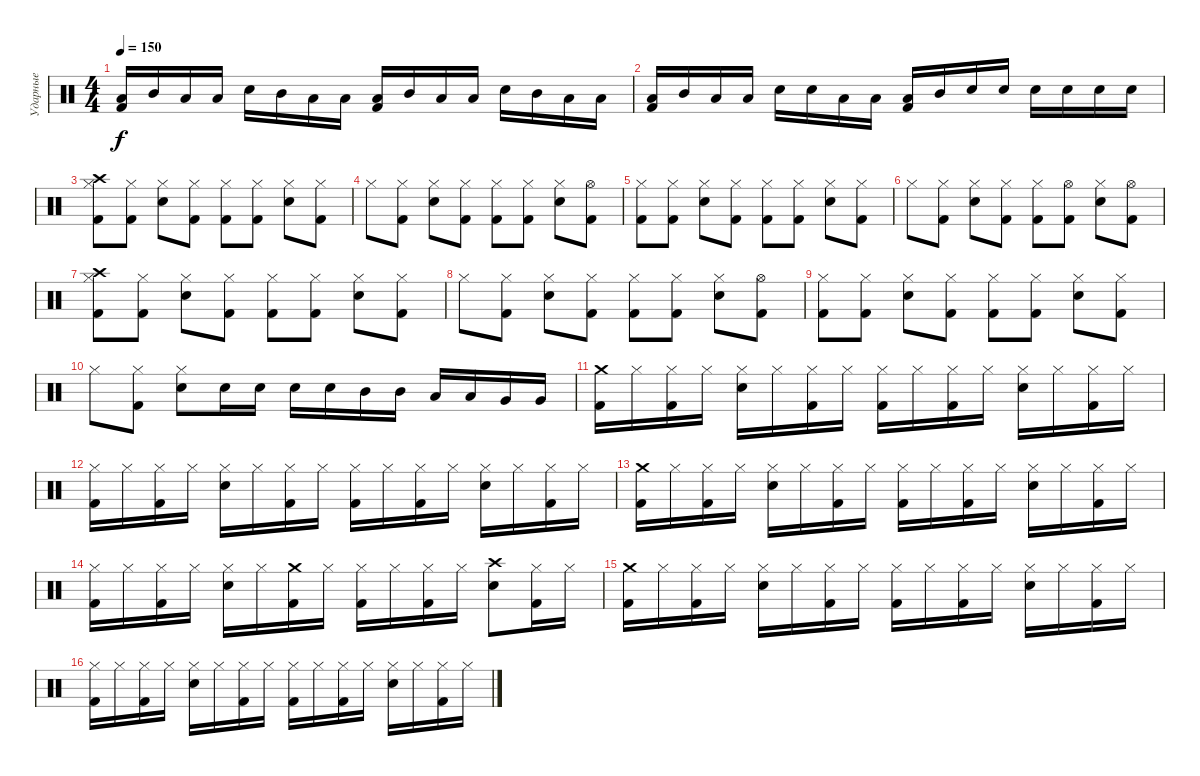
\track ("Ударные" "Ударные") {instrument percussion}
\staff {score}
\articulation defaults
\ts (4 4)
\tempo 150
\clef neutral
\ks c
("Low Tom (hit)" "Kick (hit) 2").16{dy f} "Mid Tom (hit)".16 "Low Tom (hit)".16 "Low Tom (hit)".16 "Electric Snare (hit)".16 "Mid Tom (hit)".16 "Low Tom (hit)".16 "Low Tom (hit)".16 ("Low Tom (hit)" "Kick (hit) 2").16 "Mid Tom (hit)".16 "Low Tom (hit)".16 "Low Tom (hit)".16 "Electric Snare (hit)".16 "Mid Tom (hit)".16 "Low Tom (hit)".16 "Low Tom (hit)".16 |
("Low Tom (hit)" "Kick (hit) 2").16 "Mid Tom (hit)".16 "Low Tom (hit)".16 "Low Tom (hit)".16 "Electric Snare (hit)".16 "Electric Snare (hit)".16 "Low Tom (hit)".16 "Low Tom (hit)".16 ("Low Tom (hit)" "Kick (hit) 2").16 "Mid Tom (hit)".16 "Electric Snare (hit)".16 "Electric Snare (hit)".16 "Electric Snare (hit)".16 "Electric Snare (hit)".16 "Electric Snare (hit)".16 "Electric Snare (hit)".16 |
("Crash high (hit)" "Hi-Hat (closed)" "Kick (hit) 2").8 ("Hi-Hat (closed)" "Kick (hit) 2").8 ("Hi-Hat (closed)" "Electric Snare (hit)").8 ("Hi-Hat (closed)" "Kick (hit) 2").8 ("Hi-Hat (closed)" "Kick (hit) 2").8 ("Hi-Hat (closed)" "Kick (hit) 2").8 ("Hi-Hat (closed)" "Electric Snare (hit)").8 ("Hi-Hat (closed)" "Kick (hit) 2").8 |
"Hi-Hat (closed)".8 ("Hi-Hat (closed)" "Kick (hit) 2").8 ("Hi-Hat (closed)" "Electric Snare (hit)").8 ("Hi-Hat (closed)" "Kick (hit) 2").8 ("Hi-Hat (closed)" "Kick (hit) 2").8 ("Hi-Hat (closed)" "Kick (hit) 2").8 ("Hi-Hat (closed)" "Electric Snare (hit)").8 ("Hi-Hat (open)" "Kick (hit) 2").8 |
("Hi-Hat (closed)" "Kick (hit) 2").8 ("Hi-Hat (closed)" "Kick (hit) 2").8 ("Hi-Hat (closed)" "Electric Snare (hit)").8 ("Hi-Hat (closed)" "Kick (hit) 2").8 ("Hi-Hat (closed)" "Kick (hit) 2").8 ("Hi-Hat (closed)" "Kick (hit) 2").8 ("Hi-Hat (closed)" "Electric Snare (hit)").8 ("Hi-Hat (closed)" "Kick (hit) 2").8 |
"Hi-Hat (closed)".8 ("Hi-Hat (closed)" "Kick (hit) 2").8 ("Hi-Hat (closed)" "Electric Snare (hit)").8 ("Hi-Hat (closed)" "Kick (hit) 2").8 ("Hi-Hat (closed)" "Kick (hit) 2").8 ("Hi-Hat (open)" "Kick (hit) 2").8 ("Hi-Hat (closed)" "Electric Snare (hit)").8 ("Hi-Hat (open)" "Kick (hit) 2").8 |
("Crash high (hit)" "Hi-Hat (closed)" "Kick (hit) 2").8 ("Hi-Hat (closed)" "Kick (hit) 2").8 ("Hi-Hat (closed)" "Electric Snare (hit)").8 ("Hi-Hat (closed)" "Kick (hit) 2").8 ("Hi-Hat (closed)" "Kick (hit) 2").8 ("Hi-Hat (closed)" "Kick (hit) 2").8 ("Hi-Hat (closed)" "Electric Snare (hit)").8 ("Hi-Hat (closed)" "Kick (hit) 2").8 |
"Hi-Hat (closed)".8 ("Hi-Hat (closed)" "Kick (hit) 2").8 ("Hi-Hat (closed)" "Electric Snare (hit)").8 ("Hi-Hat (closed)" "Kick (hit) 2").8 ("Hi-Hat (closed)" "Kick (hit) 2").8 ("Hi-Hat (closed)" "Kick (hit) 2").8 ("Hi-Hat (closed)" "Electric Snare (hit)").8 ("Hi-Hat (open)" "Kick (hit) 2").8 |
("Hi-Hat (closed)" "Kick (hit) 2").8 ("Hi-Hat (closed)" "Kick (hit) 2").8 ("Hi-Hat (closed)" "Electric Snare (hit)").8 ("Hi-Hat (closed)" "Kick (hit) 2").8 ("Hi-Hat (closed)" "Kick (hit) 2").8 ("Hi-Hat (closed)" "Kick (hit) 2").8 ("Hi-Hat (closed)" "Electric Snare (hit)").8 ("Hi-Hat (closed)" "Kick (hit) 2").8 |
"Hi-Hat (closed)".8 ("Hi-Hat (closed)" "Kick (hit) 2").8 ("Hi-Hat (closed)" "Electric Snare (hit)").8 "Electric Snare (hit)".16 "Electric Snare (hit)".16 "Electric Snare (hit)".16 "Electric Snare (hit)".16 "Mid Tom (hit)".16 "Mid Tom (hit)".16 "Low Tom (hit)".16 "Low Tom (hit)".16 "Very Low Tom (hit)".16 "Very Low Tom (hit)".16 |
("Crash medium (hit)" "Kick (hit) 2").16 "Hi-Hat (closed)".16 ("Hi-Hat (closed)" "Kick (hit) 2").16 "Hi-Hat (closed)".16 ("Hi-Hat (closed)" "Electric Snare (hit)").16 "Hi-Hat (closed)".16 ("Hi-Hat (closed)" "Kick (hit) 2").16 "Hi-Hat (closed)".16 ("Hi-Hat (closed)" "Kick (hit) 2").16 "Hi-Hat (closed)".16 ("Hi-Hat (closed)" "Kick (hit) 2").16 "Hi-Hat (closed)".16 ("Hi-Hat (closed)" "Electric Snare (hit)").16 "Hi-Hat (closed)".16 ("Hi-Hat (closed)" "Kick (hit) 2").16 "Hi-Hat (closed)".16 |
("Hi-Hat (closed)" "Kick (hit) 2").16 "Hi-Hat (closed)".16 ("Hi-Hat (closed)" "Kick (hit) 2").16 "Hi-Hat (closed)".16 ("Hi-Hat (closed)" "Electric Snare (hit)").16 "Hi-Hat (closed)".16 ("Hi-Hat (closed)" "Kick (hit) 2").16 "Hi-Hat (closed)".16 ("Hi-Hat (closed)" "Kick (hit) 2").16 "Hi-Hat (closed)".16 ("Hi-Hat (closed)" "Kick (hit) 2").16 "Hi-Hat (closed)".16 ("Hi-Hat (closed)" "Electric Snare (hit)").16 "Hi-Hat (closed)".16 ("Hi-Hat (closed)" "Kick (hit) 2").16 "Hi-Hat (closed)".16 |
("Crash medium (hit)" "Kick (hit) 2").16 "Hi-Hat (closed)".16 ("Hi-Hat (closed)" "Kick (hit) 2").16 "Hi-Hat (closed)".16 ("Hi-Hat (closed)" "Electric Snare (hit)").16 "Hi-Hat (closed)".16 ("Hi-Hat (closed)" "Kick (hit) 2").16 "Hi-Hat (closed)".16 ("Hi-Hat (closed)" "Kick (hit) 2").16 "Hi-Hat (closed)".16 ("Hi-Hat (closed)" "Kick (hit) 2").16 "Hi-Hat (closed)".16 ("Hi-Hat (closed)" "Electric Snare (hit)").16 "Hi-Hat (closed)".16 ("Hi-Hat (closed)" "Kick (hit) 2").16 "Hi-Hat (closed)".16 |
("Hi-Hat (closed)" "Kick (hit) 2").16 "Hi-Hat (closed)".16 ("Hi-Hat (closed)" "Kick (hit) 2").16 "Hi-Hat (closed)".16 ("Hi-Hat (closed)" "Electric Snare (hit)").16 "Hi-Hat (closed)".16 ("Crash medium (hit)" "Kick (hit) 2").16 "Hi-Hat (closed)".16 ("Hi-Hat (closed)" "Kick (hit) 2").16 "Hi-Hat (closed)".16 ("Hi-Hat (closed)" "Kick (hit) 2").16 "Hi-Hat (closed)".16 ("Crash high (hit)" "Electric Snare (hit)").8 ("Hi-Hat (closed)" "Kick (hit) 2").16 "Hi-Hat (closed)".16 |
("Crash medium (hit)" "Kick (hit) 2").16 "Hi-Hat (closed)".16 ("Hi-Hat (closed)" "Kick (hit) 2").16 "Hi-Hat (closed)".16 ("Hi-Hat (closed)" "Electric Snare (hit)").16 "Hi-Hat (closed)".16 ("Hi-Hat (closed)" "Kick (hit) 2").16 "Hi-Hat (closed)".16 ("Hi-Hat (closed)" "Kick (hit) 2").16 "Hi-Hat (closed)".16 ("Hi-Hat (closed)" "Kick (hit) 2").16 "Hi-Hat (closed)".16 ("Hi-Hat (closed)" "Electric Snare (hit)").16 "Hi-Hat (closed)".16 ("Hi-Hat (closed)" "Kick (hit) 2").16 "Hi-Hat (closed)".16 |
("Hi-Hat (closed)" "Kick (hit) 2").16 "Hi-Hat (closed)".16 ("Hi-Hat (closed)" "Kick (hit) 2").16 "Hi-Hat (closed)".16 ("Hi-Hat (closed)" "Electric Snare (hit)").16 "Hi-Hat (closed)".16 ("Hi-Hat (closed)" "Kick (hit) 2").16 "Hi-Hat (closed)".16 ("Hi-Hat (closed)" "Kick (hit) 2").16 "Hi-Hat (closed)".16 ("Hi-Hat (closed)" "Kick (hit) 2").16 "Hi-Hat (closed)".16 ("Hi-Hat (closed)" "Electric Snare (hit)").16 "Hi-Hat (closed)".16 ("Hi-Hat (closed)" "Kick (hit) 2").16 "Hi-Hat (closed)".16
